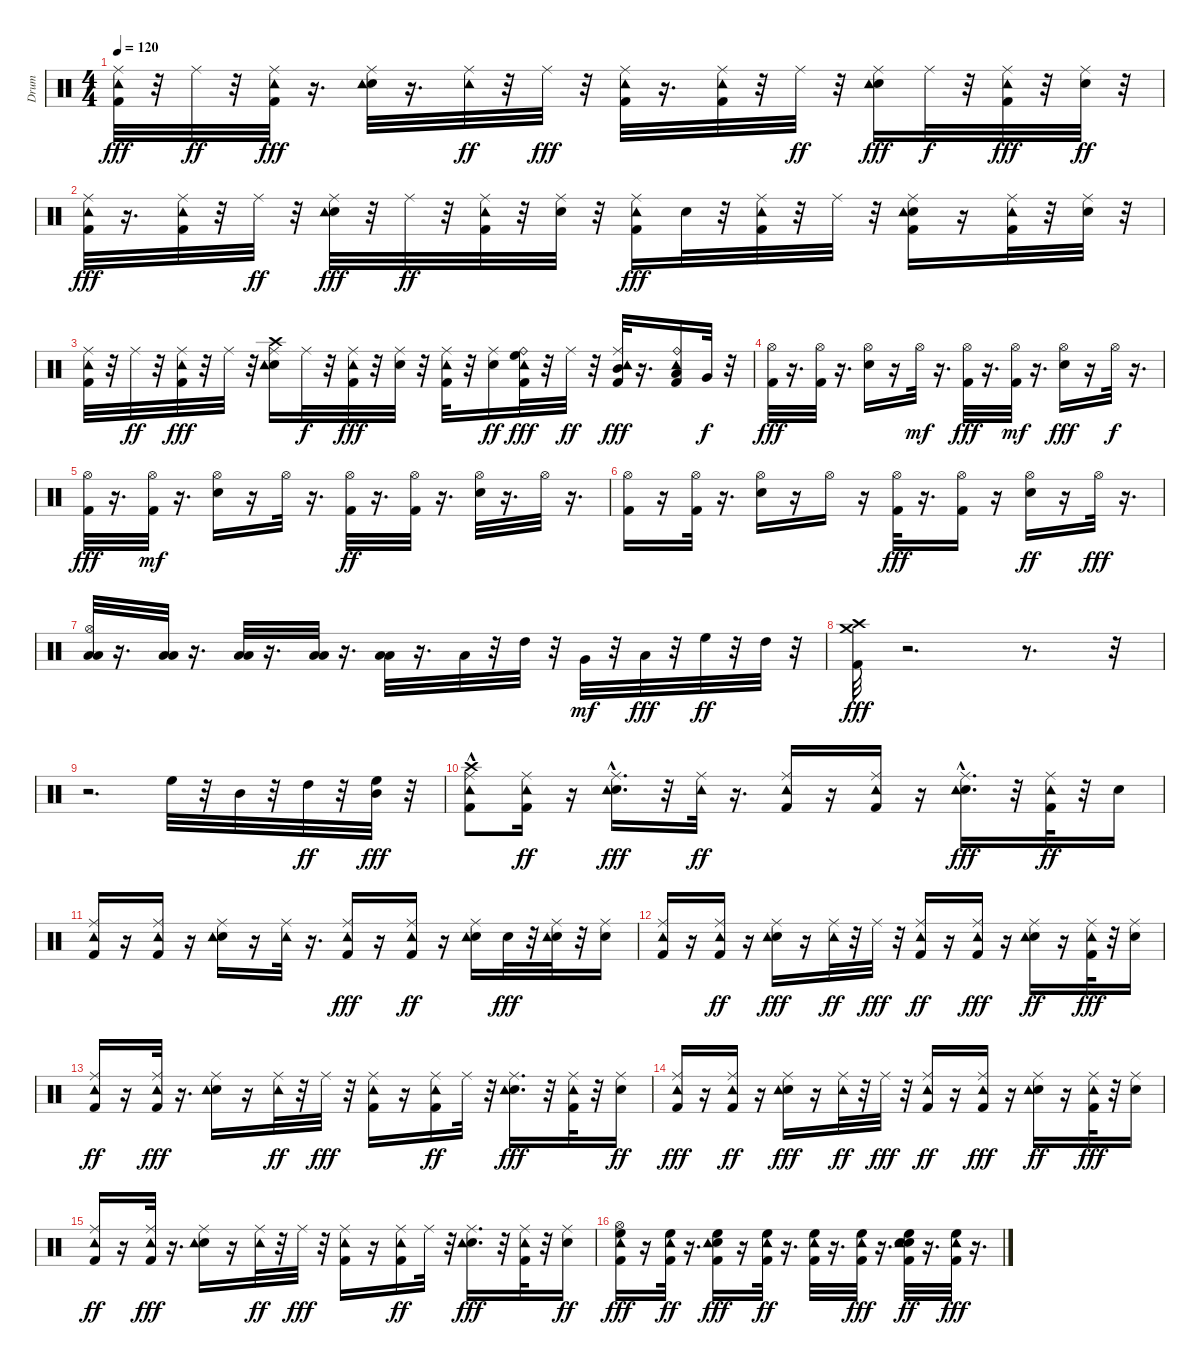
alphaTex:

\track ("Drum" "Drum") {instrument percussion}
\staff {score}
\articulation defaults
\ts (4 4)
\tempo 120
\clef neutral
\ks c
("Kick (hit) 2" "Ride (middle)" "Tambourine (hit)").32{dy fff} r.32 "Ride (middle)".32{dy ff} r.32 ("Kick (hit) 2" "Ride (middle)" "Tambourine (hit)").32{dy fff} r.16{d} ("Electric Snare (hit)" "Ride (middle)" "Tambourine (hit)").32 r.16{d} ("Ride (middle)" "Tambourine (hit)").32{dy ff} r.32 "Ride (middle)".32{dy fff} r.32 ("Kick (hit) 2" "Ride (middle)" "Tambourine (hit)").32 r.16{d} ("Kick (hit) 2" "Ride (middle)" "Tambourine (hit)").32 r.32 "Ride (middle)".32{dy ff} r.32 ("Electric Snare (hit)" "Ride (middle)" "Tambourine (hit)").16{dy fff} "Ride (middle)".32{dy f} r.32 ("Kick (hit) 2" "Ride (middle)" "Tambourine (hit)").32{dy fff} r.32 ("Electric Snare (hit)" "Ride (middle)").32{dy ff} r.32 |
("Kick (hit) 2" "Ride (middle)" "Tambourine (hit)").32{dy fff} r.16{d} ("Kick (hit) 2" "Ride (middle)" "Tambourine (hit)").32 r.32 "Ride (middle)".32{dy ff} r.32 ("Electric Snare (hit)" "Ride (middle)" "Tambourine (hit)").32{dy fff} r.32 "Ride (middle)".32{dy ff} r.32 ("Kick (hit) 2" "Ride (middle)" "Tambourine (hit)").32 r.32 ("Electric Snare (hit)" "Ride (middle)").32 r.32 ("Kick (hit) 2" "Ride (middle)" "Tambourine (hit)").16{dy fff} "Electric Snare (hit)".32 r.32 ("Kick (hit) 2" "Ride (middle)" "Tambourine (hit)").32 r.32 "Ride (middle)".32 r.32 ("Kick (hit) 2" "Electric Snare (hit)" "Ride (middle)" "Tambourine (hit)").16 r.16 ("Kick (hit) 2" "Ride (middle)" "Tambourine (hit)").32 r.32 ("Electric Snare (hit)" "Ride (middle)").32 r.32 |
("Kick (hit) 2" "Ride (middle)" "Tambourine (hit)").32 r.32 "Ride (middle)".32{dy ff} r.32 ("Kick (hit) 2" "Ride (middle)" "Tambourine (hit)").32{dy fff} r.32 "Ride (middle)".32 r.32 ("Electric Snare (hit)" "Crash high (hit)" "Ride (middle)" "Tambourine (hit)").16 "Ride (middle)".32{dy f} r.32 ("Kick (hit) 2" "Ride (middle)" "Tambourine (hit)").32{dy fff} r.32 ("Electric Snare (hit)" "Ride (middle)").32 r.32 ("Kick (hit) 2" "Ride (middle)" "Tambourine (hit)").32 r.32 ("Electric Snare (hit)" "Ride (middle)").16{dy ff} ("Kick (hit) 2" "High Floor Tom (hit)" "Ride (bell)" "Tambourine (hit)").32{dy fff} r.32 "Ride (middle)".32{dy ff} r.32 ("Kick (hit) 2" "Mid Tom (hit)" "Ride (middle)" "Tambourine (hit)").32{dy fff} r.16{d} ("Kick (hit) 2" "Low Tom (hit)" "Ride (bell)" "Tambourine (hit)").16 "Very Low Tom (hit)".32{dy f} r.32 |
("Kick (hit) 2" "Hi-Hat (open)").32{dy fff} r.16{d} ("Kick (hit) 2" "Hi-Hat (open)").32 r.16{d} ("Electric Snare (hit)" "Hi-Hat (open)").16 r.16 "Hi-Hat (open)".32{dy mf} r.16{d} ("Kick (hit) 2" "Hi-Hat (open)").32{dy fff} r.16{d} ("Kick (hit) 2" "Hi-Hat (open)").32{dy mf} r.16{d} ("Electric Snare (hit)" "Hi-Hat (open)").16{dy fff} r.16 "Hi-Hat (open)".32{dy f} r.16{d} |
("Kick (hit) 2" "Hi-Hat (open)").32{dy fff} r.16{d} ("Kick (hit) 2" "Hi-Hat (open)").32{dy mf} r.16{d} ("Electric Snare (hit)" "Hi-Hat (open)").16 r.16 "Hi-Hat (open)".32 r.16{d} ("Kick (hit) 2" "Hi-Hat (open)").32{dy ff} r.16{d} ("Kick (hit) 2" "Hi-Hat (open)").32 r.16{d} ("Electric Snare (hit)" "Hi-Hat (open)").32 r.16{d} "Hi-Hat (open)".32 r.16{d} |
("Kick (hit) 2" "Hi-Hat (open)").16 r.16 ("Kick (hit) 2" "Hi-Hat (open)").32 r.16{d} ("Electric Snare (hit)" "Hi-Hat (open)").16 r.16 "Hi-Hat (open)".16 r.16 ("Kick (hit) 2" "Hi-Hat (open)").32{dy fff} r.16{d} ("Kick (hit) 2" "Hi-Hat (open)").16 r.16 ("Electric Snare (hit)" "Hi-Hat (open)").16{dy ff} r.16 "Hi-Hat (open)".32{dy fff} r.16{d} |
("Low Floor Tom (hit)" "Low Tom (hit)" "Hi-Hat (open)").32 r.16{d} ("Low Floor Tom (hit)" "Low Tom (hit)").32 r.16{d} ("Low Floor Tom (hit)" "Low Tom (hit)").32 r.16{d} ("Low Floor Tom (hit)" "Low Tom (hit)").32 r.16{d} ("Low Floor Tom (hit)" "Low Tom (hit)").32 r.16{d} "Low Tom (hit)".32 r.32 "High Tom (hit)".32 r.32 "Very Low Tom (hit)".32{dy mf} r.32 "Low Floor Tom (hit)".32{dy fff} r.32 "High Floor Tom (hit)".32{dy ff} r.32 "High Tom (hit)".32 r.32 |
("Kick (hit) 2" "Crash high (hit)" "Crash medium (hit)").32{dy fff} r.2{d} r.8{d} r.32 |
r.2{d} "High Floor Tom (hit)".32 r.32 "Mid Tom (hit)".32 r.32 "High Tom (hit)".32{dy ff} r.32 ("Mid Tom (hit)" "High Floor Tom (hit)").32{dy fff} r.32 |
("Kick (hit) 2" "Crash high (hit)"{hac} "Ride (middle)" "Tambourine (hit)").8 ("Kick (hit) 2" "Ride (middle)" "Tambourine (hit)").16{dy ff} r.16 ("Electric Snare (hit)"{hac} "Ride (middle)" "Tambourine (hit)").16{d dy fff} r.32 ("Ride (middle)" "Tambourine (hit)").32{dy ff} r.16{d} ("Kick (hit) 2" "Ride (middle)" "Tambourine (hit)").16 r.16 ("Kick (hit) 2" "Ride (middle)" "Tambourine (hit)").16 r.16 ("Electric Snare (hit)"{hac} "Ride (middle)" "Tambourine (hit)").16{d dy fff} r.32 ("Kick (hit) 2" "Ride (middle)" "Tambourine (hit)").32{dy ff} r.32 "Electric Snare (hit)".16 |
("Kick (hit) 2" "Ride (middle)" "Tambourine (hit)").16 r.16 ("Kick (hit) 2" "Ride (middle)" "Tambourine (hit)").16 r.16 ("Electric Snare (hit)" "Ride (middle)" "Tambourine (hit)").16 r.16 ("Ride (middle)" "Tambourine (hit)").32 r.16{d} ("Kick (hit) 2" "Ride (middle)" "Tambourine (hit)").16{dy fff} r.16 ("Kick (hit) 2" "Ride (middle)" "Tambourine (hit)").16{dy ff} r.16 ("Electric Snare (hit)" "Ride (middle)" "Tambourine (hit)").16 "Electric Snare (hit)".32{dy fff} r.32 ("Electric Snare (hit)" "Ride (middle)" "Tambourine (hit)").32 r.32 ("Electric Snare (hit)" "Ride (middle)").16 |
("Kick (hit) 2" "Ride (middle)" "Tambourine (hit)").16 r.16 ("Kick (hit) 2" "Ride (middle)" "Tambourine (hit)").16{dy ff} r.16 ("Electric Snare (hit)" "Ride (middle)" "Tambourine (hit)").16{dy fff} r.16 ("Ride (middle)" "Tambourine (hit)").32{dy ff} r.32 "Ride (middle)".32{dy fff} r.32 ("Kick (hit) 2" "Ride (middle)" "Tambourine (hit)").16{dy ff} r.16 ("Kick (hit) 2" "Ride (middle)" "Tambourine (hit)").16{dy fff} r.16 ("Electric Snare (hit)" "Ride (middle)" "Tambourine (hit)").16{dy ff} r.16 ("Kick (hit) 2" "Ride (middle)" "Tambourine (hit)").32{dy fff} r.32 ("Electric Snare (hit)" "Ride (middle)").16 |
("Kick (hit) 2" "Ride (middle)" "Tambourine (hit)").16{dy ff} r.16 ("Kick (hit) 2" "Ride (middle)" "Tambourine (hit)").32{dy fff} r.16{d} ("Electric Snare (hit)" "Ride (middle)" "Tambourine (hit)").16 r.16 ("Ride (middle)" "Tambourine (hit)").32{dy ff} r.32 "Ride (middle)".32{dy fff} r.32 ("Kick (hit) 2" "Ride (middle)" "Tambourine (hit)").16 r.16 ("Kick (hit) 2" "Ride (middle)" "Tambourine (hit)").16{dy ff} "Ride (middle)".32 r.32 ("Electric Snare (hit)" "Ride (middle)" "Tambourine (hit)").16{d dy fff} r.32 ("Kick (hit) 2" "Ride (middle)" "Tambourine (hit)").32 r.32 ("Electric Snare (hit)" "Ride (middle)").16{dy ff} |
("Kick (hit) 2" "Ride (middle)" "Tambourine (hit)").16{dy fff} r.16 ("Kick (hit) 2" "Ride (middle)" "Tambourine (hit)").16{dy ff} r.16 ("Electric Snare (hit)" "Ride (middle)" "Tambourine (hit)").16{dy fff} r.16 ("Ride (middle)" "Tambourine (hit)").32{dy ff} r.32 "Ride (middle)".32{dy fff} r.32 ("Kick (hit) 2" "Ride (middle)" "Tambourine (hit)").16{dy ff} r.16 ("Kick (hit) 2" "Ride (middle)" "Tambourine (hit)").16{dy fff} r.16 ("Electric Snare (hit)" "Ride (middle)" "Tambourine (hit)").16{dy ff} r.16 ("Kick (hit) 2" "Ride (middle)" "Tambourine (hit)").32{dy fff} r.32 ("Electric Snare (hit)" "Ride (middle)").16 |
("Kick (hit) 2" "Ride (middle)" "Tambourine (hit)").16{dy ff} r.16 ("Kick (hit) 2" "Ride (middle)" "Tambourine (hit)").32{dy fff} r.16{d} ("Electric Snare (hit)" "Ride (middle)" "Tambourine (hit)").16 r.16 ("Ride (middle)" "Tambourine (hit)").32{dy ff} r.32 "Ride (middle)".32{dy fff} r.32 ("Kick (hit) 2" "Ride (middle)" "Tambourine (hit)").16 r.16 ("Kick (hit) 2" "Ride (middle)" "Tambourine (hit)").16{dy ff} "Ride (middle)".32 r.32 ("Electric Snare (hit)" "Ride (middle)" "Tambourine (hit)").16{d dy fff} r.32 ("Kick (hit) 2" "Ride (middle)" "Tambourine (hit)").32 r.32 ("Electric Snare (hit)" "Ride (middle)").16{dy ff} |
("Kick (hit) 2" "Hi-Hat (open)" "High Floor Tom (hit)" "Tambourine (hit)").16{dy fff} r.16 ("Kick (hit) 2" "High Floor Tom (hit)" "Tambourine (hit)").32{dy ff} r.16{d} ("Kick (hit) 2" "Electric Snare (hit)" "High Floor Tom (hit)" "Tambourine (hit)").16{dy fff} r.16 ("Kick (hit) 2" "High Floor Tom (hit)" "Tambourine (hit)").32{dy ff} r.16{d} ("Kick (hit) 2" "High Floor Tom (hit)" "Tambourine (hit)").32 r.16{d} ("Kick (hit) 2" "High Floor Tom (hit)" "Tambourine (hit)").32{dy fff} r.16{d} ("Kick (hit) 2" "Snare (hit) 2" "Electric Snare (hit)" "High Floor Tom (hit)" "Tambourine (hit)").32{dy ff} r.16{d} ("Kick (hit) 2" "High Floor Tom (hit)" "Tambourine (hit)").32{dy fff} r.16{d}
